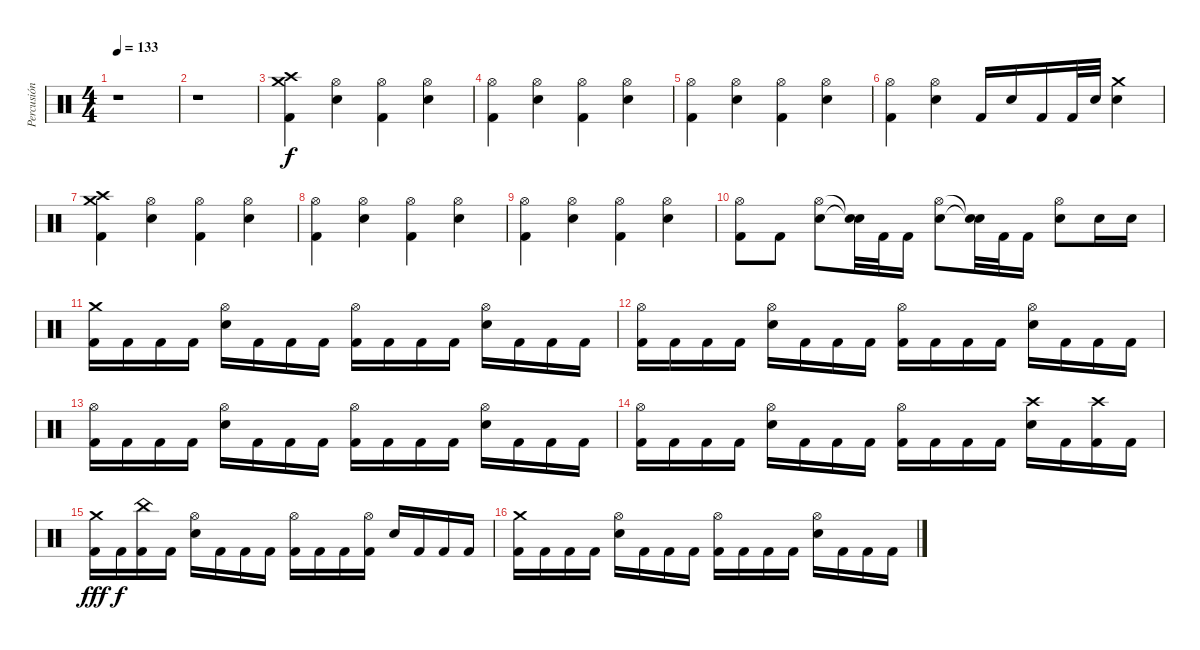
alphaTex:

\track ("Percusión" "Percusión") {instrument percussion}
\staff {score}
\articulation defaults
\ts (4 4)
\tempo 133
\clef neutral
\ks c
r.1{dy f} |
r.1 |
("Crash high (hit)" "Crash medium (hit)" "Kick (hit) 2").4 ("Hi-Hat (open)" "Snare (hit) 2").4 ("Hi-Hat (open)" "Kick (hit) 2").4 ("Hi-Hat (open)" "Snare (hit) 2").4 |
("Hi-Hat (open)" "Kick (hit) 2").4 ("Hi-Hat (open)" "Snare (hit) 2").4 ("Hi-Hat (open)" "Kick (hit) 2").4 ("Hi-Hat (open)" "Snare (hit) 2").4 |
("Hi-Hat (open)" "Kick (hit) 2").4 ("Hi-Hat (open)" "Snare (hit) 2").4 ("Hi-Hat (open)" "Kick (hit) 2").4 ("Hi-Hat (open)" "Snare (hit) 2").4 |
("Hi-Hat (open)" "Kick (hit) 2").4 ("Hi-Hat (open)" "Snare (hit) 2").4 "Kick (hit) 2".16 "Snare (hit) 2".16 "Kick (hit) 2".16 "Kick (hit) 2".32 "Snare (hit) 2".32 ("Crash medium (hit)" "Snare (hit) 2").4 |
("Crash high (hit)" "Crash medium (hit)" "Kick (hit) 2").4 ("Hi-Hat (open)" "Snare (hit) 2").4 ("Hi-Hat (open)" "Kick (hit) 2").4 ("Hi-Hat (open)" "Snare (hit) 2").4 |
("Hi-Hat (open)" "Kick (hit) 2").4 ("Hi-Hat (open)" "Snare (hit) 2").4 ("Hi-Hat (open)" "Kick (hit) 2").4 ("Hi-Hat (open)" "Snare (hit) 2").4 |
("Hi-Hat (open)" "Kick (hit) 2").4 ("Hi-Hat (open)" "Snare (hit) 2").4 ("Hi-Hat (open)" "Kick (hit) 2").4 ("Hi-Hat (open)" "Snare (hit) 2").4 |
("Hi-Hat (open)" "Kick (hit) 2").8 "Kick (hit) 2".8 ("Hi-Hat (open)" "Snare (hit) 2").8 ("Snare (hit)"{t} "Snare (hit)"{t}).32 "Kick (hit) 2".32 "Kick (hit) 2".16 ("Hi-Hat (open)" "Snare (hit) 2").8 ("Snare (hit)"{t} "Snare (hit)"{t}).32 "Kick (hit) 2".32 "Kick (hit) 2".16 ("Hi-Hat (open)" "Snare (hit) 2").8 "Snare (hit) 2".16 "Snare (hit) 2".16 |
("Crash medium (hit)" "Kick (hit) 2").16 "Kick (hit) 2".16 "Kick (hit) 2".16 "Kick (hit) 2".16 ("Hi-Hat (open)" "Snare (hit) 2").16 "Kick (hit) 2".16 "Kick (hit) 2".16 "Kick (hit) 2".16 ("Hi-Hat (open)" "Kick (hit) 2").16 "Kick (hit) 2".16 "Kick (hit) 2".16 "Kick (hit) 2".16 ("Hi-Hat (open)" "Snare (hit) 2").16 "Kick (hit) 2".16 "Kick (hit) 2".16 "Kick (hit) 2".16 |
("Hi-Hat (open)" "Kick (hit) 2").16 "Kick (hit) 2".16 "Kick (hit) 2".16 "Kick (hit) 2".16 ("Hi-Hat (open)" "Snare (hit) 2").16 "Kick (hit) 2".16 "Kick (hit) 2".16 "Kick (hit) 2".16 ("Hi-Hat (open)" "Kick (hit) 2").16 "Kick (hit) 2".16 "Kick (hit) 2".16 "Kick (hit) 2".16 ("Hi-Hat (open)" "Snare (hit) 2").16 "Kick (hit) 2".16 "Kick (hit) 2".16 "Kick (hit) 2".16 |
("Hi-Hat (open)" "Kick (hit) 2").16 "Kick (hit) 2".16 "Kick (hit) 2".16 "Kick (hit) 2".16 ("Hi-Hat (open)" "Snare (hit) 2").16 "Kick (hit) 2".16 "Kick (hit) 2".16 "Kick (hit) 2".16 ("Hi-Hat (open)" "Kick (hit) 2").16 "Kick (hit) 2".16 "Kick (hit) 2".16 "Kick (hit) 2".16 ("Hi-Hat (open)" "Snare (hit) 2").16 "Kick (hit) 2".16 "Kick (hit) 2".16 "Kick (hit) 2".16 |
("Hi-Hat (open)" "Kick (hit) 2").16 "Kick (hit) 2".16 "Kick (hit) 2".16 "Kick (hit) 2".16 ("Hi-Hat (open)" "Snare (hit) 2").16 "Kick (hit) 2".16 "Kick (hit) 2".16 "Kick (hit) 2".16 ("Hi-Hat (open)" "Kick (hit) 2").16 "Kick (hit) 2".16 "Kick (hit) 2".16 "Kick (hit) 2".16 ("Crash high (hit)" "Snare (hit) 2").16 "Kick (hit) 2".16 ("Crash high (hit)" "Kick (hit) 2").16 "Kick (hit) 2".16 |
("Crash medium (hit)" "Kick (hit) 2").16{dy fff} "Kick (hit) 2".16{dy f} ("China (hit)" "Kick (hit) 2").16 "Kick (hit) 2".16 ("Hi-Hat (open)" "Snare (hit) 2").16 "Kick (hit) 2".16 "Kick (hit) 2".16 "Kick (hit) 2".16 ("Hi-Hat (open)" "Kick (hit) 2").16 "Kick (hit) 2".16 "Kick (hit) 2".16 ("Hi-Hat (open)" "Kick (hit) 2").16 "Snare (hit) 2".16 "Kick (hit) 2".16 "Kick (hit) 2".16 "Kick (hit) 2".16 |
("Crash medium (hit)" "Kick (hit) 2").16 "Kick (hit) 2".16 "Kick (hit) 2".16 "Kick (hit) 2".16 ("Hi-Hat (open)" "Snare (hit) 2").16 "Kick (hit) 2".16 "Kick (hit) 2".16 "Kick (hit) 2".16 ("Hi-Hat (open)" "Kick (hit) 2").16 "Kick (hit) 2".16 "Kick (hit) 2".16 "Kick (hit) 2".16 ("Hi-Hat (open)" "Snare (hit) 2").16 "Kick (hit) 2".16 "Kick (hit) 2".16 "Kick (hit) 2".16
